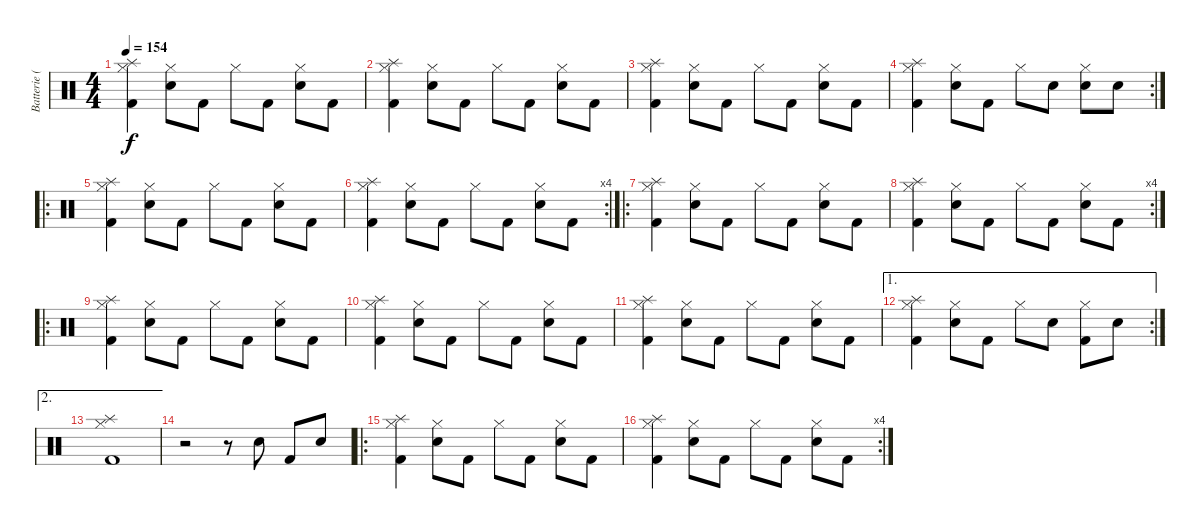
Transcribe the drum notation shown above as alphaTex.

\track ("Batterie (Patty)" "Batterie (") {instrument percussion}
\staff {score}
\articulation defaults
\ts (4 4)
\tempo 154
\clef neutral
\ks c
("Splash (hit)" "Hi-Hat (closed)" "Kick (hit) 2").4{dy f} ("Hi-Hat (closed)" "Snare (hit) 2").8 "Kick (hit) 2".8 "Hi-Hat (closed)".8 "Kick (hit) 2".8 ("Hi-Hat (closed)" "Snare (hit) 2").8 "Kick (hit) 2".8 |
("Splash (hit)" "Hi-Hat (closed)" "Kick (hit) 2").4 ("Hi-Hat (closed)" "Snare (hit) 2").8 "Kick (hit) 2".8 "Hi-Hat (closed)".8 "Kick (hit) 2".8 ("Hi-Hat (closed)" "Snare (hit) 2").8 "Kick (hit) 2".8 |
("Splash (hit)" "Hi-Hat (closed)" "Kick (hit) 2").4 ("Hi-Hat (closed)" "Snare (hit) 2").8 "Kick (hit) 2".8 "Hi-Hat (closed)".8 "Kick (hit) 2".8 ("Hi-Hat (closed)" "Snare (hit) 2").8 "Kick (hit) 2".8 |
\rc 2
("Splash (hit)" "Hi-Hat (closed)" "Kick (hit) 2").4 ("Hi-Hat (closed)" "Snare (hit) 2").8 "Kick (hit) 2".8 "Hi-Hat (closed)".8 "Snare (hit) 2".8 ("Hi-Hat (closed)" "Snare (hit) 2").8 "Snare (hit) 2".8 |
\ro
("Splash (hit)" "Hi-Hat (closed)" "Kick (hit) 2").4 ("Hi-Hat (closed)" "Snare (hit) 2").8 "Kick (hit) 2".8 "Hi-Hat (closed)".8 "Kick (hit) 2".8 ("Hi-Hat (closed)" "Snare (hit) 2").8 "Kick (hit) 2".8 |
\rc 4
("Splash (hit)" "Hi-Hat (closed)" "Kick (hit) 2").4 ("Hi-Hat (closed)" "Snare (hit) 2").8 "Kick (hit) 2".8 "Hi-Hat (closed)".8 "Kick (hit) 2".8 ("Hi-Hat (closed)" "Snare (hit) 2").8 "Kick (hit) 2".8 |
\ro
("Splash (hit)" "Hi-Hat (closed)" "Kick (hit) 2").4 ("Hi-Hat (closed)" "Snare (hit) 2").8 "Kick (hit) 2".8 "Hi-Hat (closed)".8 "Kick (hit) 2".8 ("Hi-Hat (closed)" "Snare (hit) 2").8 "Kick (hit) 2".8 |
\rc 4
("Splash (hit)" "Hi-Hat (closed)" "Kick (hit) 2").4 ("Hi-Hat (closed)" "Snare (hit) 2").8 "Kick (hit) 2".8 "Hi-Hat (closed)".8 "Kick (hit) 2".8 ("Hi-Hat (closed)" "Snare (hit) 2").8 "Kick (hit) 2".8 |
\ro
("Splash (hit)" "Hi-Hat (closed)" "Kick (hit) 2").4 ("Hi-Hat (closed)" "Snare (hit) 2").8 "Kick (hit) 2".8 "Hi-Hat (closed)".8 "Kick (hit) 2".8 ("Hi-Hat (closed)" "Snare (hit) 2").8 "Kick (hit) 2".8 |
("Splash (hit)" "Hi-Hat (closed)" "Kick (hit) 2").4 ("Hi-Hat (closed)" "Snare (hit) 2").8 "Kick (hit) 2".8 "Hi-Hat (closed)".8 "Kick (hit) 2".8 ("Hi-Hat (closed)" "Snare (hit) 2").8 "Kick (hit) 2".8 |
("Splash (hit)" "Hi-Hat (closed)" "Kick (hit) 2").4 ("Hi-Hat (closed)" "Snare (hit) 2").8 "Kick (hit) 2".8 "Hi-Hat (closed)".8 "Kick (hit) 2".8 ("Hi-Hat (closed)" "Snare (hit) 2").8 "Kick (hit) 2".8 |
\ae 1
\rc 2
("Splash (hit)" "Hi-Hat (closed)" "Kick (hit) 2").4 ("Hi-Hat (closed)" "Snare (hit) 2").8 "Kick (hit) 2".8 "Hi-Hat (closed)".8 "Snare (hit) 2".8 ("Hi-Hat (closed)" "Kick (hit) 2").8 "Snare (hit) 2".8 |
\ae 2
("Splash (hit)" "Hi-Hat (closed)" "Kick (hit) 2").1 |
r.2 r.8 "Snare (hit) 2".8 "Kick (hit) 2".8 "Snare (hit) 2".8 |
\ro
("Splash (hit)" "Hi-Hat (closed)" "Kick (hit) 2").4 ("Hi-Hat (closed)" "Snare (hit) 2").8 "Kick (hit) 2".8 "Hi-Hat (closed)".8 "Kick (hit) 2".8 ("Hi-Hat (closed)" "Snare (hit) 2").8 "Kick (hit) 2".8 |
\rc 4
("Splash (hit)" "Hi-Hat (closed)" "Kick (hit) 2").4 ("Hi-Hat (closed)" "Snare (hit) 2").8 "Kick (hit) 2".8 "Hi-Hat (closed)".8 "Kick (hit) 2".8 ("Hi-Hat (closed)" "Snare (hit) 2").8 "Kick (hit) 2".8
